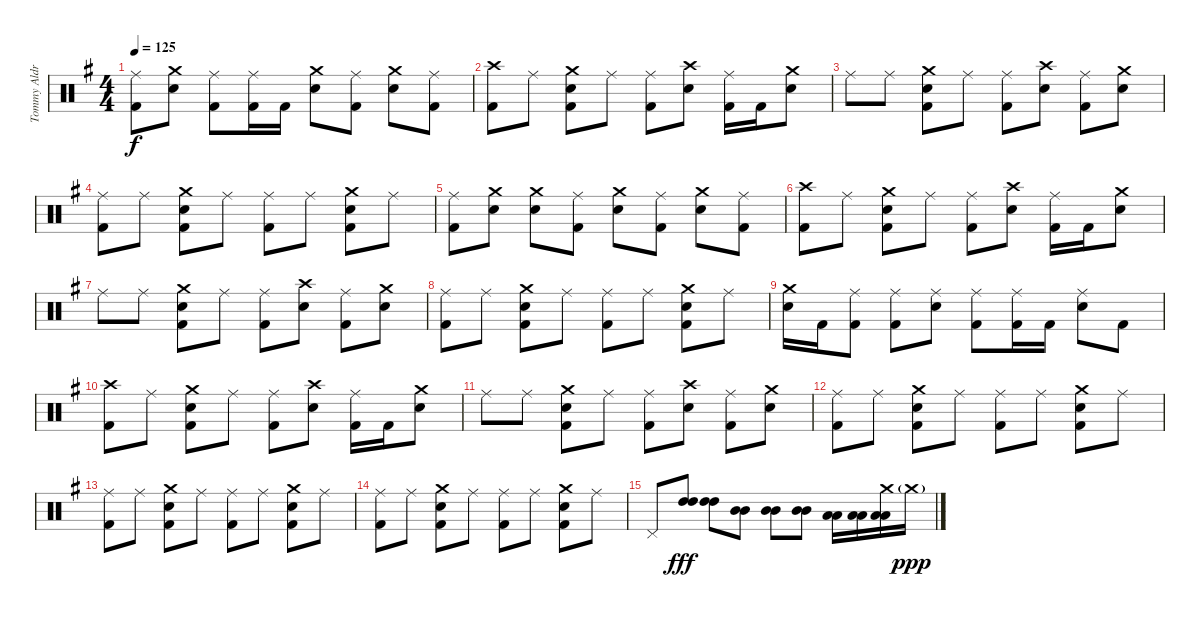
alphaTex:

\track ("Tommy Aldridge" "Tommy Aldr") {instrument percussion}
\staff {score}
\articulation defaults
\ts (4 4)
\tempo 125
\clef neutral
\ks eminor
("Ride (middle)" "Kick (hit) 2").8{dy f} ("Crash medium (hit)" "Snare (hit) 2").8 ("Ride (middle)" "Kick (hit) 2").8 ("Ride (middle)" "Kick (hit) 2").16 "Kick (hit) 2".16 ("Crash medium (hit)" "Snare (hit) 2").8 ("Ride (middle)" "Kick (hit) 2").8 ("Crash medium (hit)" "Snare (hit) 2").8 ("Ride (middle)" "Kick (hit) 2").8 |
("Crash high (hit)" "Kick (hit) 2").8 "Ride (middle)".8 ("Crash medium (hit)" "Snare (hit) 2" "Kick (hit) 2").8 "Ride (middle)".8 ("Ride (middle)" "Kick (hit) 2").8 ("Crash high (hit)" "Snare (hit) 2").8 ("Ride (middle)" "Kick (hit) 2").16 "Kick (hit) 2".16 ("Crash medium (hit)" "Snare (hit) 2").8 |
"Ride (middle)".8 "Ride (middle)".8 ("Crash medium (hit)" "Snare (hit) 2" "Kick (hit) 2").8 "Ride (middle)".8 ("Ride (middle)" "Kick (hit) 2").8 ("Crash high (hit)" "Snare (hit) 2").8 ("Ride (middle)" "Kick (hit) 2").8 ("Crash medium (hit)" "Snare (hit) 2").8 |
("Ride (middle)" "Kick (hit) 2").8 "Ride (middle)".8 ("Crash medium (hit)" "Snare (hit) 2" "Kick (hit) 2").8 "Ride (middle)".8 ("Ride (middle)" "Kick (hit) 2").8 "Ride (middle)".8 ("Crash medium (hit)" "Snare (hit) 2" "Kick (hit) 2").8 "Ride (middle)".8 |
("Ride (middle)" "Kick (hit) 2").8 ("Crash medium (hit)" "Snare (hit) 2").8 ("Crash medium (hit)" "Snare (hit) 2").8 ("Ride (middle)" "Kick (hit) 2").8 ("Crash medium (hit)" "Snare (hit) 2").8 ("Ride (middle)" "Kick (hit) 2").8 ("Crash medium (hit)" "Snare (hit) 2").8 ("Ride (middle)" "Kick (hit) 2").8 |
("Crash high (hit)" "Kick (hit) 2").8 "Ride (middle)".8 ("Crash medium (hit)" "Snare (hit) 2" "Kick (hit) 2").8 "Ride (middle)".8 ("Ride (middle)" "Kick (hit) 2").8 ("Crash high (hit)" "Snare (hit) 2").8 ("Ride (middle)" "Kick (hit) 2").16 "Kick (hit) 2".16 ("Crash medium (hit)" "Snare (hit) 2").8 |
"Ride (middle)".8 "Ride (middle)".8 ("Crash medium (hit)" "Snare (hit) 2" "Kick (hit) 2").8 "Ride (middle)".8 ("Ride (middle)" "Kick (hit) 2").8 ("Crash high (hit)" "Snare (hit) 2").8 ("Ride (middle)" "Kick (hit) 2").8 ("Crash medium (hit)" "Snare (hit) 2").8 |
("Ride (middle)" "Kick (hit) 2").8 "Ride (middle)".8 ("Crash medium (hit)" "Snare (hit) 2" "Kick (hit) 2").8 "Ride (middle)".8 ("Ride (middle)" "Kick (hit) 2").8 "Ride (middle)".8 ("Crash medium (hit)" "Snare (hit) 2" "Kick (hit) 2").8 "Ride (middle)".8 |
("Crash medium (hit)" "Snare (hit) 2").16 "Kick (hit) 2".16 ("Ride (middle)" "Kick (hit) 2").8 ("Ride (middle)" "Kick (hit) 2").8 ("Ride (middle)" "Snare (hit) 2").8 ("Ride (middle)" "Kick (hit) 2").8 ("Ride (middle)" "Kick (hit) 2").16 "Kick (hit) 2".16 ("Ride (middle)" "Snare (hit) 2").8 "Kick (hit) 2".8 |
("Crash high (hit)" "Kick (hit) 2").8 "Ride (middle)".8 ("Crash medium (hit)" "Snare (hit) 2" "Kick (hit) 2").8 "Ride (middle)".8 ("Ride (middle)" "Kick (hit) 2").8 ("Crash high (hit)" "Snare (hit) 2").8 ("Ride (middle)" "Kick (hit) 2").16 "Kick (hit) 2".16 ("Crash medium (hit)" "Snare (hit) 2").8 |
"Ride (middle)".8 "Ride (middle)".8 ("Crash medium (hit)" "Snare (hit) 2" "Kick (hit) 2").8 "Ride (middle)".8 ("Ride (middle)" "Kick (hit) 2").8 ("Crash high (hit)" "Snare (hit) 2").8 ("Ride (middle)" "Kick (hit) 2").8 ("Crash medium (hit)" "Snare (hit) 2").8 |
("Ride (middle)" "Kick (hit) 2").8 "Ride (middle)".8 ("Crash medium (hit)" "Snare (hit) 2" "Kick (hit) 2").8 "Ride (middle)".8 ("Ride (middle)" "Kick (hit) 2").8 "Ride (middle)".8 ("Crash medium (hit)" "Snare (hit) 2" "Kick (hit) 2").8 "Ride (middle)".8 |
("Ride (middle)" "Kick (hit) 2").8 "Ride (middle)".8 ("Crash medium (hit)" "Snare (hit) 2" "Kick (hit) 2").8 "Ride (middle)".8 ("Ride (middle)" "Kick (hit) 2").8 "Ride (middle)".8 ("Crash medium (hit)" "Snare (hit) 2" "Kick (hit) 2").8 "Ride (middle)".8 |
("Ride (middle)" "Kick (hit) 2").8 "Ride (middle)".8 ("Crash medium (hit)" "Snare (hit) 2" "Kick (hit) 2").8 "Ride (middle)".8 ("Ride (middle)" "Kick (hit) 2").8 "Ride (middle)".8 ("Crash medium (hit)" "Snare (hit) 2" "Kick (hit) 2").8 "Ride (middle)".8 |
"Pedal Hi-Hat (hit)".8 ("High Tom (hit)" "High Tom (hit)").8{dy fff} ("High Tom (hit)" "High Tom (hit)").8 ("Mid Tom (hit)" "Mid Tom (hit)").8 ("Mid Tom (hit)" "Mid Tom (hit)").8 ("Mid Tom (hit)" "Mid Tom (hit)").8 ("Low Tom (hit)" "Low Tom (hit)").16 ("Low Tom (hit)" "Low Tom (hit)").16 ("Crash medium (hit)" "Low Tom (hit)" "Low Tom (hit)").16 "Crash medium (hit)"{g}.16{dy ppp}
